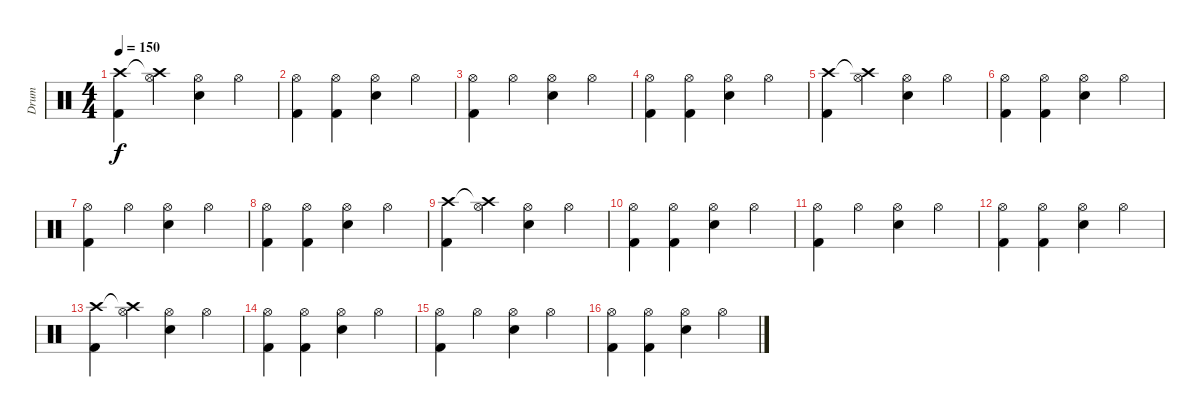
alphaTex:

\track ("Drum" "Drum") {instrument percussion}
\staff {score}
\articulation defaults
\ts (4 4)
\tempo 150
\clef neutral
\ks c
("Crash high (hit)" "Kick (hit) 2").4{dy f} ("Crash high (hit)"{t} "Hi-Hat (open)").4 ("Hi-Hat (open)" "Snare (hit) 2").4 "Hi-Hat (open)".4 |
("Hi-Hat (open)" "Kick (hit) 2").4 ("Hi-Hat (open)" "Kick (hit) 2").4 ("Hi-Hat (open)" "Snare (hit) 2").4 "Hi-Hat (open)".4 |
("Hi-Hat (open)" "Kick (hit) 2").4 "Hi-Hat (open)".4 ("Hi-Hat (open)" "Snare (hit) 2").4 "Hi-Hat (open)".4 |
("Hi-Hat (open)" "Kick (hit) 2").4 ("Hi-Hat (open)" "Kick (hit) 2").4 ("Hi-Hat (open)" "Snare (hit) 2").4 "Hi-Hat (open)".4 |
("Crash high (hit)" "Kick (hit) 2").4 ("Crash high (hit)"{t} "Hi-Hat (open)").4 ("Hi-Hat (open)" "Snare (hit) 2").4 "Hi-Hat (open)".4 |
("Hi-Hat (open)" "Kick (hit) 2").4 ("Hi-Hat (open)" "Kick (hit) 2").4 ("Hi-Hat (open)" "Snare (hit) 2").4 "Hi-Hat (open)".4 |
("Hi-Hat (open)" "Kick (hit) 2").4 "Hi-Hat (open)".4 ("Hi-Hat (open)" "Snare (hit) 2").4 "Hi-Hat (open)".4 |
("Hi-Hat (open)" "Kick (hit) 2").4 ("Hi-Hat (open)" "Kick (hit) 2").4 ("Hi-Hat (open)" "Snare (hit) 2").4 "Hi-Hat (open)".4 |
("Crash high (hit)" "Kick (hit) 2").4 ("Crash high (hit)"{t} "Hi-Hat (open)").4 ("Hi-Hat (open)" "Snare (hit) 2").4 "Hi-Hat (open)".4 |
("Hi-Hat (open)" "Kick (hit) 2").4 ("Hi-Hat (open)" "Kick (hit) 2").4 ("Hi-Hat (open)" "Snare (hit) 2").4 "Hi-Hat (open)".4 |
("Hi-Hat (open)" "Kick (hit) 2").4 "Hi-Hat (open)".4 ("Hi-Hat (open)" "Snare (hit) 2").4 "Hi-Hat (open)".4 |
("Hi-Hat (open)" "Kick (hit) 2").4 ("Hi-Hat (open)" "Kick (hit) 2").4 ("Hi-Hat (open)" "Snare (hit) 2").4 "Hi-Hat (open)".4 |
("Crash high (hit)" "Kick (hit) 2").4 ("Crash high (hit)"{t} "Hi-Hat (open)").4 ("Hi-Hat (open)" "Snare (hit) 2").4 "Hi-Hat (open)".4 |
("Hi-Hat (open)" "Kick (hit) 2").4 ("Hi-Hat (open)" "Kick (hit) 2").4 ("Hi-Hat (open)" "Snare (hit) 2").4 "Hi-Hat (open)".4 |
("Hi-Hat (open)" "Kick (hit) 2").4 "Hi-Hat (open)".4 ("Hi-Hat (open)" "Snare (hit) 2").4 "Hi-Hat (open)".4 |
("Hi-Hat (open)" "Kick (hit) 2").4 ("Hi-Hat (open)" "Kick (hit) 2").4 ("Hi-Hat (open)" "Snare (hit) 2").4 "Hi-Hat (open)".4
